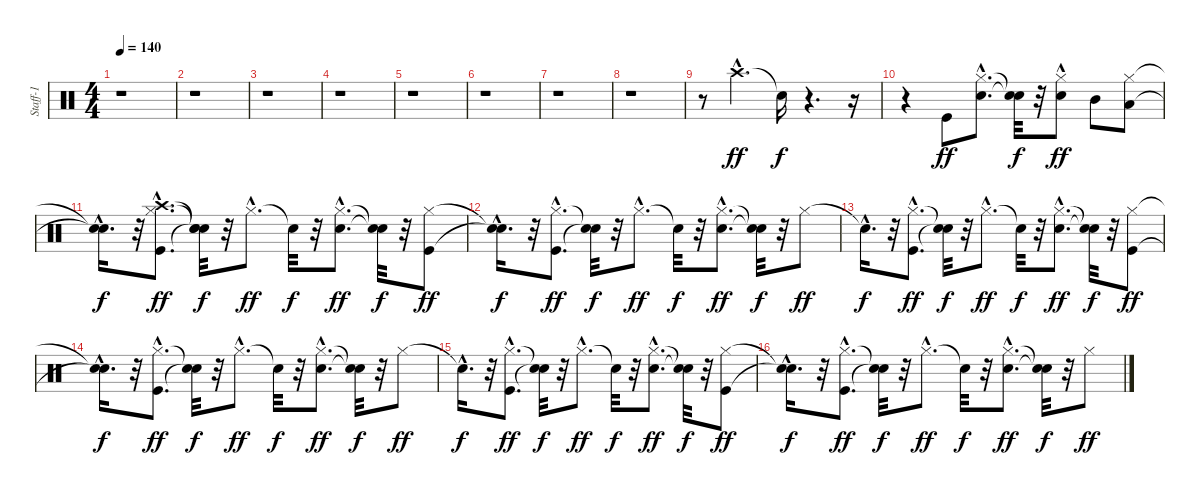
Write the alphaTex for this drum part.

\track ("Staff-1" "Staff-1") {instrument percussion}
\staff {score}
\articulation defaults
\ts (4 4)
\tempo 140
\clef neutral
\ks c
r.1{dy ff} |
r.1 |
r.1 |
r.1 |
r.1 |
r.1 |
r.1 |
r.1 |
r.8 "Crash high (hit)"{hac}.4{d volume 8} "Snare (hit)"{t}.16{dy f} r.4{d} r.16 |
r.4 "Kick (hit)".8{dy ff volume 16} ("Snare (hit) 2"{hac} "Hi-Hat (closed)"{hac}).8{d} ("Snare (hit)"{t} "Snare (hit)"{t}).32{dy f} r.32 ("Snare (hit) 2" "Hi-Hat (closed)"{hac}).8{dy ff} "Mid Tom (hit)".8 ("Hi-Hat (closed)" "Low Tom (hit)").8 |
("Snare (hit)"{hac t} "Snare (hit)"{hac t}).16{d dy f} r.32 ("Kick (hit)"{hac} "Hi-Hat (closed)"{hac} "Crash high (hit)"{hac}).8{d dy ff} ("Snare (hit)"{t} "Snare (hit)"{t} "Snare (hit)"{t}).32{dy f} r.32 "Hi-Hat (closed)"{hac}.8{d dy ff} "Snare (hit)"{t}.32{dy f} r.32 ("Snare (hit) 2"{hac} "Hi-Hat (closed)"{hac}).8{d dy ff} ("Snare (hit)"{t} "Snare (hit)"{t}).32{dy f} r.32 ("Kick (hit)" "Hi-Hat (closed)").8{dy ff} |
("Snare (hit)"{hac t} "Snare (hit)"{hac t}).16{d dy f} r.32 ("Kick (hit)"{hac} "Hi-Hat (closed)"{hac}).8{d dy ff} ("Snare (hit)"{t} "Snare (hit)"{t}).32{dy f} r.32 "Hi-Hat (closed)"{hac}.8{d dy ff} "Snare (hit)"{t}.32{dy f} r.32 ("Snare (hit) 2"{hac} "Hi-Hat (closed)"{hac}).8{d dy ff} ("Snare (hit)"{t} "Snare (hit)"{t}).32{dy f} r.32 "Hi-Hat (closed)".8{dy ff} |
"Snare (hit)"{hac t}.16{d dy f} r.32 ("Kick (hit)"{hac} "Hi-Hat (closed)"{hac}).8{d dy ff} ("Snare (hit)"{t} "Snare (hit)"{t}).32{dy f} r.32 "Hi-Hat (closed)"{hac}.8{d dy ff} "Snare (hit)"{t}.32{dy f} r.32 ("Snare (hit) 2"{hac} "Hi-Hat (closed)"{hac}).8{d dy ff} ("Snare (hit)"{t} "Snare (hit)"{t}).32{dy f} r.32 ("Kick (hit)" "Hi-Hat (closed)").8{dy ff} |
("Snare (hit)"{hac t} "Snare (hit)"{hac t}).16{d dy f} r.32 ("Kick (hit)"{hac} "Hi-Hat (closed)"{hac}).8{d dy ff} ("Snare (hit)"{t} "Snare (hit)"{t}).32{dy f} r.32 "Hi-Hat (closed)"{hac}.8{d dy ff} "Snare (hit)"{t}.32{dy f} r.32 ("Snare (hit) 2"{hac} "Hi-Hat (closed)"{hac}).8{d dy ff} ("Snare (hit)"{t} "Snare (hit)"{t}).32{dy f} r.32 "Hi-Hat (closed)".8{dy ff} |
"Snare (hit)"{hac t}.16{d dy f} r.32 ("Kick (hit)"{hac} "Hi-Hat (closed)"{hac}).8{d dy ff} ("Snare (hit)"{t} "Snare (hit)"{t}).32{dy f} r.32 "Hi-Hat (closed)"{hac}.8{d dy ff} "Snare (hit)"{t}.32{dy f} r.32 ("Snare (hit) 2"{hac} "Hi-Hat (closed)"{hac}).8{d dy ff} ("Snare (hit)"{t} "Snare (hit)"{t}).32{dy f} r.32 ("Kick (hit)" "Hi-Hat (closed)").8{dy ff} |
("Snare (hit)"{hac t} "Snare (hit)"{hac t}).16{d dy f} r.32 ("Kick (hit)"{hac} "Hi-Hat (closed)"{hac}).8{d dy ff} ("Snare (hit)"{t} "Snare (hit)"{t}).32{dy f} r.32 "Hi-Hat (closed)"{hac}.8{d dy ff} "Snare (hit)"{t}.32{dy f} r.32 ("Snare (hit) 2"{hac} "Hi-Hat (closed)"{hac}).8{d dy ff} ("Snare (hit)"{t} "Snare (hit)"{t}).32{dy f} r.32 "Hi-Hat (closed)".8{dy ff}
